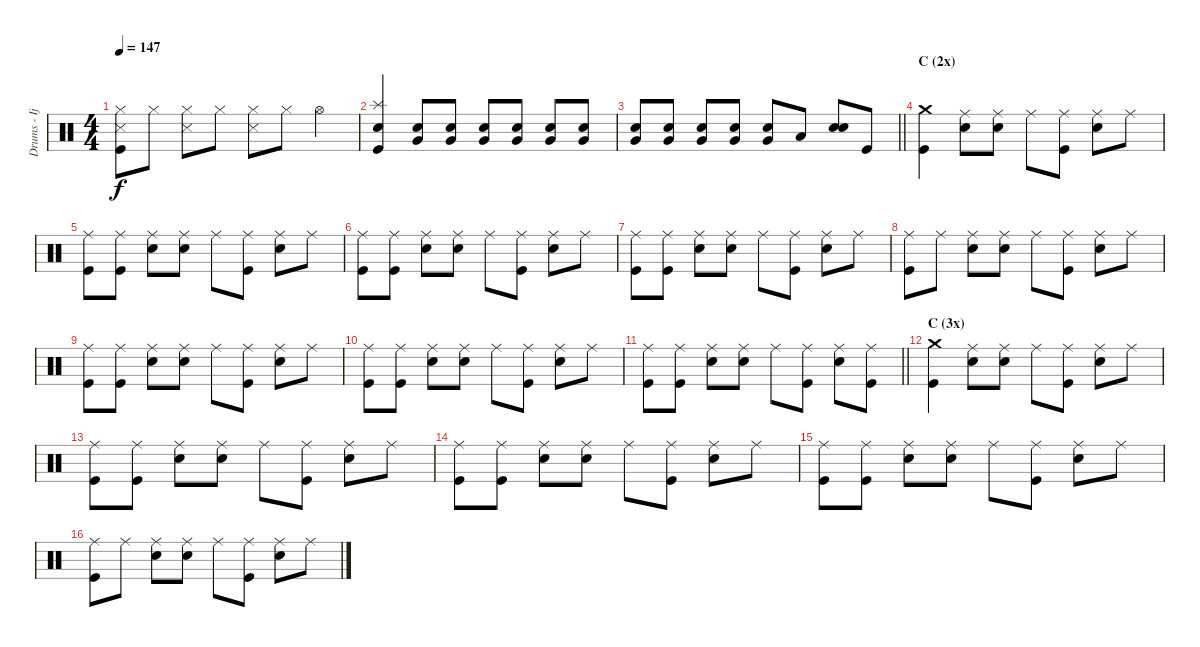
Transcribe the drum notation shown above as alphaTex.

\track ("Drums - Ijichi" "Drums - Ij") {instrument percussion}
\staff {score}
\articulation defaults
\ts (4 4)
\tempo 147
\clef neutral
\ks c
("Hi-Hat (closed)" "Snare (side stick) 3" "Kick (hit)").8{dy f} "Hi-Hat (closed)".8 ("Hi-Hat (closed)" "Snare (side stick) 3").8 "Hi-Hat (closed)".8 ("Hi-Hat (closed)" "Snare (side stick) 3").8 "Hi-Hat (closed)".8 "Hi-Hat (open)".4 |
("Splash (hit)" "Electric Snare (hit)" "Kick (hit)").4 ("Electric Snare (hit)" "Very Low Tom (hit)").8{volume 10} ("Electric Snare (hit)" "Very Low Tom (hit)").8{volume 13} ("Electric Snare (hit)" "Very Low Tom (hit)").8 ("Electric Snare (hit)" "Very Low Tom (hit)").8 ("Electric Snare (hit)" "Very Low Tom (hit)").8 ("Electric Snare (hit)" "Very Low Tom (hit)").8 |
\barLineRight lightlight
("Electric Snare (hit)" "Very Low Tom (hit)").8 ("Electric Snare (hit)" "Very Low Tom (hit)").8 ("Electric Snare (hit)" "Very Low Tom (hit)").8 ("Electric Snare (hit)" "Very Low Tom (hit)").8 ("Electric Snare (hit)" "Very Low Tom (hit)").8 "Low Tom (hit)".8 ("Electric Snare (hit)" "Electric Snare (hit)").8 "Kick (hit)".8 |
\section ("" "C (2x)")
("Crash medium (hit)" "Kick (hit)").4 ("Ride (middle)" "Electric Snare (hit)").8 ("Ride (middle)" "Electric Snare (hit)").8 "Ride (middle)".8 ("Ride (middle)" "Kick (hit)").8 ("Ride (middle)" "Electric Snare (hit)").8 "Ride (middle)".8 |
("Ride (middle)" "Kick (hit)").8 ("Ride (middle)" "Kick (hit)").8 ("Ride (middle)" "Electric Snare (hit)").8 ("Ride (middle)" "Electric Snare (hit)").8 "Ride (middle)".8 ("Ride (middle)" "Kick (hit)").8 ("Ride (middle)" "Electric Snare (hit)").8 "Ride (middle)".8 |
("Ride (middle)" "Kick (hit)").8 ("Ride (middle)" "Kick (hit)").8 ("Ride (middle)" "Electric Snare (hit)").8 ("Ride (middle)" "Electric Snare (hit)").8 "Ride (middle)".8 ("Ride (middle)" "Kick (hit)").8 ("Ride (middle)" "Electric Snare (hit)").8 "Ride (middle)".8 |
("Ride (middle)" "Kick (hit)").8 ("Ride (middle)" "Kick (hit)").8 ("Ride (middle)" "Electric Snare (hit)").8 ("Ride (middle)" "Electric Snare (hit)").8 "Ride (middle)".8 ("Ride (middle)" "Kick (hit)").8 ("Ride (middle)" "Electric Snare (hit)").8 "Ride (middle)".8 |
("Ride (middle)" "Kick (hit)").8 "Ride (middle)".8 ("Ride (middle)" "Electric Snare (hit)").8 ("Ride (middle)" "Electric Snare (hit)").8 "Ride (middle)".8 ("Ride (middle)" "Kick (hit)").8 ("Ride (middle)" "Electric Snare (hit)").8 "Ride (middle)".8 |
("Ride (middle)" "Kick (hit)").8 ("Ride (middle)" "Kick (hit)").8 ("Ride (middle)" "Electric Snare (hit)").8 ("Ride (middle)" "Electric Snare (hit)").8 "Ride (middle)".8 ("Ride (middle)" "Kick (hit)").8 ("Ride (middle)" "Electric Snare (hit)").8 "Ride (middle)".8 |
("Ride (middle)" "Kick (hit)").8 ("Ride (middle)" "Kick (hit)").8 ("Ride (middle)" "Electric Snare (hit)").8 ("Ride (middle)" "Electric Snare (hit)").8 "Ride (middle)".8 ("Ride (middle)" "Kick (hit)").8 ("Ride (middle)" "Electric Snare (hit)").8 "Ride (middle)".8 |
\barLineRight lightlight
("Ride (middle)" "Kick (hit)").8 ("Ride (middle)" "Kick (hit)").8 ("Ride (middle)" "Electric Snare (hit)").8 ("Ride (middle)" "Electric Snare (hit)").8 "Ride (middle)".8 ("Ride (middle)" "Kick (hit)").8 ("Ride (middle)" "Electric Snare (hit)").8 ("Ride (middle)" "Kick (hit)").8 |
\section ("" "C (3x)")
("Crash medium (hit)" "Kick (hit)").4 ("Ride (middle)" "Electric Snare (hit)").8 ("Ride (middle)" "Electric Snare (hit)").8 "Ride (middle)".8 ("Ride (middle)" "Kick (hit)").8 ("Ride (middle)" "Electric Snare (hit)").8 "Ride (middle)".8 |
("Ride (middle)" "Kick (hit)").8 ("Ride (middle)" "Kick (hit)").8 ("Ride (middle)" "Electric Snare (hit)").8 ("Ride (middle)" "Electric Snare (hit)").8 "Ride (middle)".8 ("Ride (middle)" "Kick (hit)").8 ("Ride (middle)" "Electric Snare (hit)").8 "Ride (middle)".8 |
("Ride (middle)" "Kick (hit)").8 ("Ride (middle)" "Kick (hit)").8 ("Ride (middle)" "Electric Snare (hit)").8 ("Ride (middle)" "Electric Snare (hit)").8 "Ride (middle)".8 ("Ride (middle)" "Kick (hit)").8 ("Ride (middle)" "Electric Snare (hit)").8 "Ride (middle)".8 |
("Ride (middle)" "Kick (hit)").8 ("Ride (middle)" "Kick (hit)").8 ("Ride (middle)" "Electric Snare (hit)").8 ("Ride (middle)" "Electric Snare (hit)").8 "Ride (middle)".8 ("Ride (middle)" "Kick (hit)").8 ("Ride (middle)" "Electric Snare (hit)").8 "Ride (middle)".8 |
("Ride (middle)" "Kick (hit)").8 "Ride (middle)".8 ("Ride (middle)" "Electric Snare (hit)").8 ("Ride (middle)" "Electric Snare (hit)").8 "Ride (middle)".8 ("Ride (middle)" "Kick (hit)").8 ("Ride (middle)" "Electric Snare (hit)").8 "Ride (middle)".8
